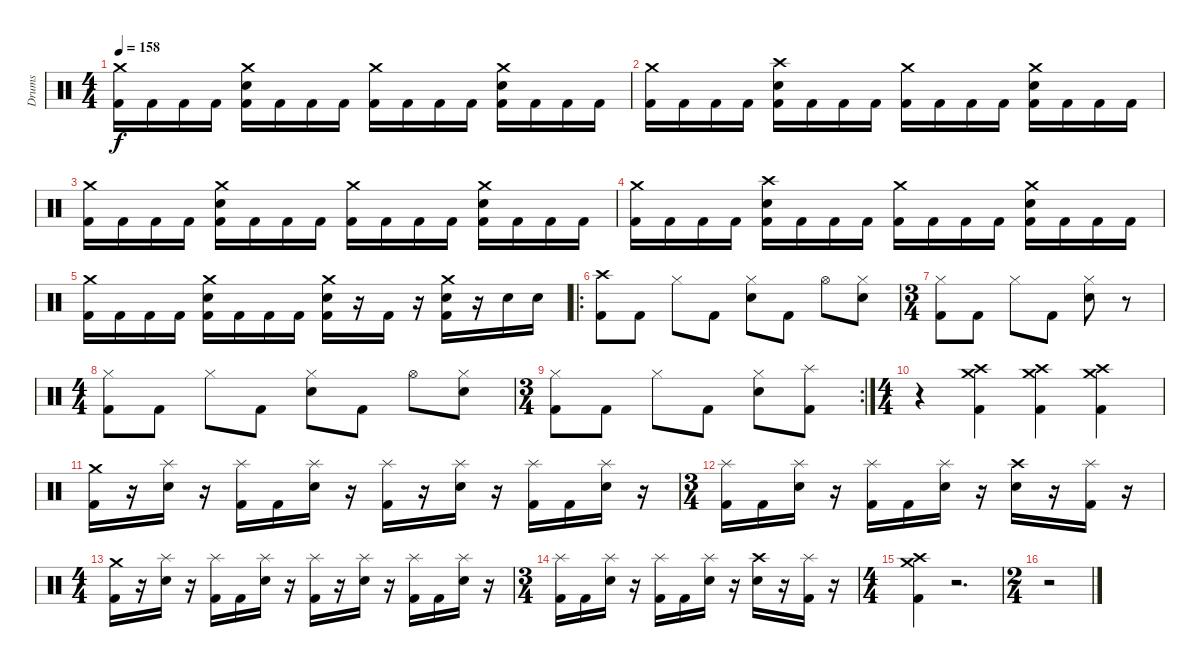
\track ("Drums" "Drums") {instrument percussion}
\staff {score}
\articulation defaults
\ts (4 4)
\tempo 158
\clef neutral
\ks c
("Crash medium (hit)" "Kick (hit) 2").16{dy f} "Kick (hit) 2".16 "Kick (hit) 2".16 "Kick (hit) 2".16 ("Crash medium (hit)" "Snare (hit) 2" "Kick (hit) 2").16 "Kick (hit) 2".16 "Kick (hit) 2".16 "Kick (hit) 2".16 ("Crash medium (hit)" "Kick (hit) 2").16 "Kick (hit) 2".16 "Kick (hit) 2".16 "Kick (hit) 2".16 ("Crash medium (hit)" "Snare (hit) 2" "Kick (hit) 2").16 "Kick (hit) 2".16 "Kick (hit) 2".16 "Kick (hit) 2".16 |
("Crash medium (hit)" "Kick (hit) 2").16 "Kick (hit) 2".16 "Kick (hit) 2".16 "Kick (hit) 2".16 ("Crash high (hit)" "Snare (hit) 2" "Kick (hit) 2").16 "Kick (hit) 2".16 "Kick (hit) 2".16 "Kick (hit) 2".16 ("Crash medium (hit)" "Kick (hit) 2").16 "Kick (hit) 2".16 "Kick (hit) 2".16 "Kick (hit) 2".16 ("Crash medium (hit)" "Snare (hit) 2" "Kick (hit) 2").16 "Kick (hit) 2".16 "Kick (hit) 2".16 "Kick (hit) 2".16 |
("Crash medium (hit)" "Kick (hit) 2").16 "Kick (hit) 2".16 "Kick (hit) 2".16 "Kick (hit) 2".16 ("Crash medium (hit)" "Snare (hit) 2" "Kick (hit) 2").16 "Kick (hit) 2".16 "Kick (hit) 2".16 "Kick (hit) 2".16 ("Crash medium (hit)" "Kick (hit) 2").16 "Kick (hit) 2".16 "Kick (hit) 2".16 "Kick (hit) 2".16 ("Crash medium (hit)" "Snare (hit) 2" "Kick (hit) 2").16 "Kick (hit) 2".16 "Kick (hit) 2".16 "Kick (hit) 2".16 |
("Crash medium (hit)" "Kick (hit) 2").16 "Kick (hit) 2".16 "Kick (hit) 2".16 "Kick (hit) 2".16 ("Crash high (hit)" "Snare (hit) 2" "Kick (hit) 2").16 "Kick (hit) 2".16 "Kick (hit) 2".16 "Kick (hit) 2".16 ("Crash medium (hit)" "Kick (hit) 2").16 "Kick (hit) 2".16 "Kick (hit) 2".16 "Kick (hit) 2".16 ("Crash medium (hit)" "Snare (hit) 2" "Kick (hit) 2").16 "Kick (hit) 2".16 "Kick (hit) 2".16 "Kick (hit) 2".16 |
("Crash medium (hit)" "Kick (hit) 2").16 "Kick (hit) 2".16 "Kick (hit) 2".16 "Kick (hit) 2".16 ("Crash medium (hit)" "Snare (hit) 2" "Kick (hit) 2").16 "Kick (hit) 2".16 "Kick (hit) 2".16 "Kick (hit) 2".16 ("Crash medium (hit)" "Snare (hit) 2" "Kick (hit) 2").16 r.16 "Kick (hit) 2".16 r.16 ("Crash medium (hit)" "Snare (hit) 2" "Kick (hit) 2").16 r.16 "Snare (hit) 2".16 "Snare (hit) 2".16 |
\ro
("Crash high (hit)" "Kick (hit) 2").8 "Kick (hit) 2".8 "Hi-Hat (closed)".8 "Kick (hit) 2".8 ("Hi-Hat (closed)" "Snare (hit) 2").8 "Kick (hit) 2".8 "Hi-Hat (open)".8 ("Hi-Hat (closed)" "Snare (hit) 2").8 |
\ts (3 4)
("Hi-Hat (closed)" "Kick (hit) 2").8 "Kick (hit) 2".8 "Hi-Hat (closed)".8 "Kick (hit) 2".8 ("Hi-Hat (closed)" "Snare (hit) 2").8 r.8 |
\ts (4 4)
("Hi-Hat (closed)" "Kick (hit) 2").8 "Kick (hit) 2".8 "Hi-Hat (closed)".8 "Kick (hit) 2".8 ("Hi-Hat (closed)" "Snare (hit) 2").8 "Kick (hit) 2".8 "Hi-Hat (open)".8 ("Hi-Hat (closed)" "Snare (hit) 2").8 |
\rc 2
\ts (3 4)
("Hi-Hat (closed)" "Kick (hit) 2").8 "Kick (hit) 2".8 "Hi-Hat (closed)".8 "Kick (hit) 2".8 ("Hi-Hat (closed)" "Snare (hit) 2").8 ("Splash (hit)" "Kick (hit) 2").8 |
\ts (4 4)
r.4 ("Crash medium (hit)" "Crash high (hit)" "Kick (hit) 2").4 ("Crash medium (hit)" "Crash high (hit)" "Kick (hit) 2").4 ("Crash medium (hit)" "Crash high (hit)" "Kick (hit) 2").4 |
("Crash medium (hit)" "Kick (hit) 2").16 r.16 ("Splash (hit)" "Snare (hit) 2").16 r.16 ("Splash (hit)" "Kick (hit) 2").16 "Kick (hit) 2".16 ("Splash (hit)" "Snare (hit) 2").16 r.16 ("Splash (hit)" "Kick (hit) 2").16 r.16 ("Splash (hit)" "Snare (hit) 2").16 r.16 ("Splash (hit)" "Kick (hit) 2").16 "Kick (hit) 2".16 ("Splash (hit)" "Snare (hit) 2").16 r.16 |
\ts (3 4)
("Splash (hit)" "Kick (hit) 2").16 "Kick (hit) 2".16 ("Splash (hit)" "Snare (hit) 2").16 r.16 ("Splash (hit)" "Kick (hit) 2").16 "Kick (hit) 2".16 ("Splash (hit)" "Snare (hit) 2").16 r.16 ("Crash high (hit)" "Snare (hit) 2").16 r.16 ("Splash (hit)" "Kick (hit) 2").16 r.16 |
\ts (4 4)
("Crash medium (hit)" "Kick (hit) 2").16 r.16 ("Splash (hit)" "Snare (hit) 2").16 r.16 ("Splash (hit)" "Kick (hit) 2").16 "Kick (hit) 2".16 ("Splash (hit)" "Snare (hit) 2").16 r.16 ("Splash (hit)" "Kick (hit) 2").16 r.16 ("Splash (hit)" "Snare (hit) 2").16 r.16 ("Splash (hit)" "Kick (hit) 2").16 "Kick (hit) 2".16 ("Splash (hit)" "Snare (hit) 2").16 r.16 |
\ts (3 4)
("Splash (hit)" "Kick (hit) 2").16 "Kick (hit) 2".16 ("Splash (hit)" "Snare (hit) 2").16 r.16 ("Splash (hit)" "Kick (hit) 2").16 "Kick (hit) 2".16 ("Splash (hit)" "Snare (hit) 2").16 r.16 ("Crash high (hit)" "Snare (hit) 2").16 r.16 ("Splash (hit)" "Kick (hit) 2").16 r.16 |
\ts (4 4)
("Crash high (hit)" "Crash medium (hit)" "Kick (hit) 2").4 r.2{d} |
\ts (2 4)
r.2
